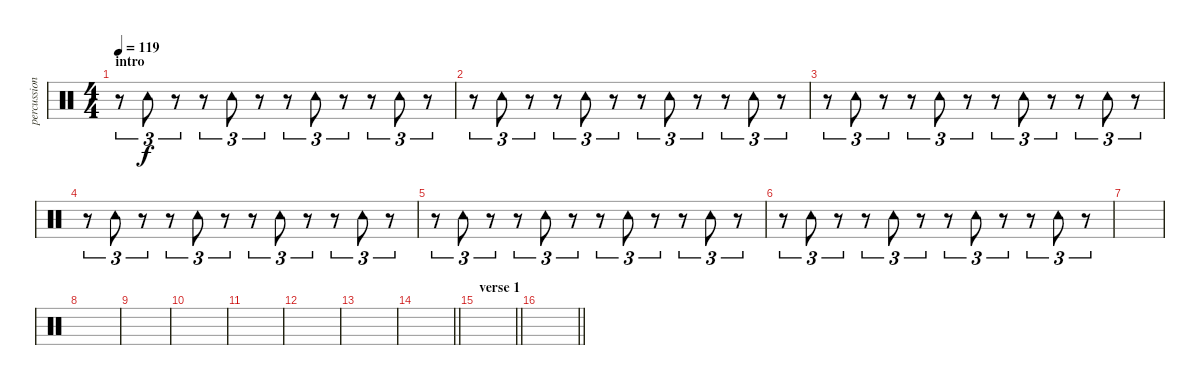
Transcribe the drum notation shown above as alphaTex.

\track ("percussion" "percussion") {instrument percussion}
\staff {score}
\articulation defaults
\ts (4 4)
\section ("" "intro")
\tempo 119
\clef neutral
\ks c
r.8{tu (3 2) dy f} "Tambourine (hit)".8{tu (3 2)} r.8{tu (3 2)} r.8{tu (3 2)} "Tambourine (hit)".8{tu (3 2)} r.8{tu (3 2)} r.8{tu (3 2)} "Tambourine (hit)".8{tu (3 2)} r.8{tu (3 2)} r.8{tu (3 2)} "Tambourine (hit)".8{tu (3 2)} r.8{tu (3 2)} |
r.8{tu (3 2)} "Tambourine (hit)".8{tu (3 2)} r.8{tu (3 2)} r.8{tu (3 2)} "Tambourine (hit)".8{tu (3 2)} r.8{tu (3 2)} r.8{tu (3 2)} "Tambourine (hit)".8{tu (3 2)} r.8{tu (3 2)} r.8{tu (3 2)} "Tambourine (hit)".8{tu (3 2)} r.8{tu (3 2)} |
r.8{tu (3 2)} "Tambourine (hit)".8{tu (3 2)} r.8{tu (3 2)} r.8{tu (3 2)} "Tambourine (hit)".8{tu (3 2)} r.8{tu (3 2)} r.8{tu (3 2)} "Tambourine (hit)".8{tu (3 2)} r.8{tu (3 2)} r.8{tu (3 2)} "Tambourine (hit)".8{tu (3 2)} r.8{tu (3 2)} |
r.8{tu (3 2)} "Tambourine (hit)".8{tu (3 2)} r.8{tu (3 2)} r.8{tu (3 2)} "Tambourine (hit)".8{tu (3 2)} r.8{tu (3 2)} r.8{tu (3 2)} "Tambourine (hit)".8{tu (3 2)} r.8{tu (3 2)} r.8{tu (3 2)} "Tambourine (hit)".8{tu (3 2)} r.8{tu (3 2)} |
r.8{tu (3 2)} "Tambourine (hit)".8{tu (3 2)} r.8{tu (3 2)} r.8{tu (3 2)} "Tambourine (hit)".8{tu (3 2)} r.8{tu (3 2)} r.8{tu (3 2)} "Tambourine (hit)".8{tu (3 2)} r.8{tu (3 2)} r.8{tu (3 2)} "Tambourine (hit)".8{tu (3 2)} r.8{tu (3 2)} |
r.8{tu (3 2)} "Tambourine (hit)".8{tu (3 2)} r.8{tu (3 2)} r.8{tu (3 2)} "Tambourine (hit)".8{tu (3 2)} r.8{tu (3 2)} r.8{tu (3 2)} "Tambourine (hit)".8{tu (3 2)} r.8{tu (3 2)} r.8{tu (3 2)} "Tambourine (hit)".8{tu (3 2)} r.8{tu (3 2)} |
|
|
|
|
|
|
|
\barLineRight lightlight
|
\section ("" "verse 1")
\barLineRight lightlight
|
\barLineRight lightlight
